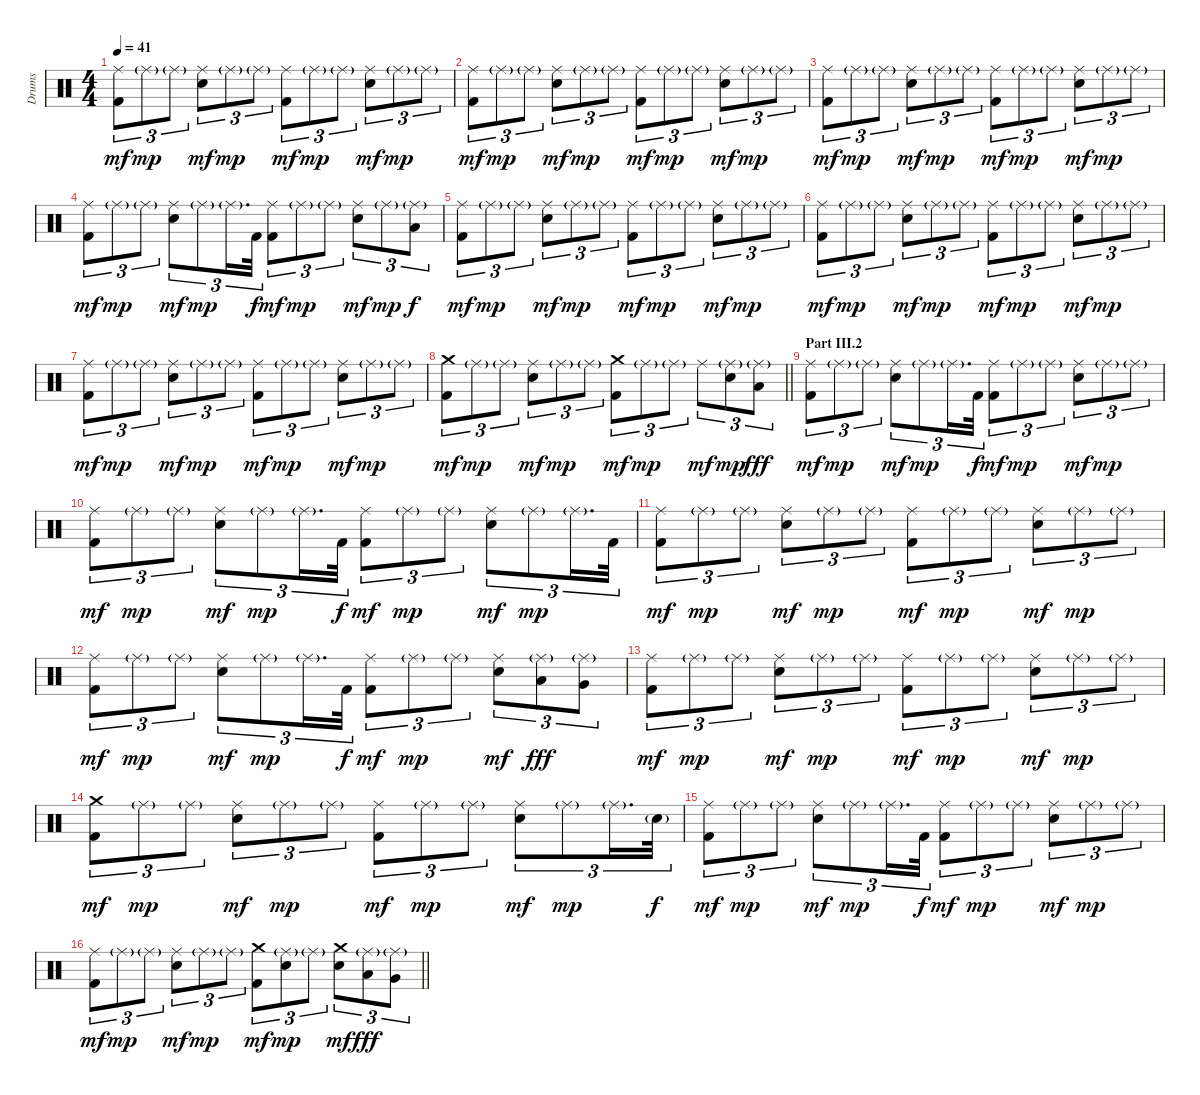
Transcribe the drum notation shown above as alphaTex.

\track ("Drums" "Drums") {instrument percussion}
\staff {score}
\articulation defaults
\ts (4 4)
\tempo 41
\clef neutral
\ks c
("Kick (hit) 2" "Ride (middle)").8{tu (3 2) dy mf} "Ride (middle)"{g}.8{tu (3 2) dy mp} "Ride (middle)"{g}.8{tu (3 2)} ("Electric Snare (hit)" "Ride (middle)").8{tu (3 2) dy mf} "Ride (middle)"{g}.8{tu (3 2) dy mp} "Ride (middle)"{g}.8{tu (3 2)} ("Kick (hit) 2" "Ride (middle)").8{tu (3 2) dy mf} "Ride (middle)"{g}.8{tu (3 2) dy mp} "Ride (middle)"{g}.8{tu (3 2)} ("Electric Snare (hit)" "Ride (middle)").8{tu (3 2) dy mf} "Ride (middle)"{g}.8{tu (3 2) dy mp} "Ride (middle)"{g}.8{tu (3 2)} |
("Kick (hit) 2" "Ride (middle)").8{tu (3 2) dy mf} "Ride (middle)"{g}.8{tu (3 2) dy mp} "Ride (middle)"{g}.8{tu (3 2)} ("Electric Snare (hit)" "Ride (middle)").8{tu (3 2) dy mf} "Ride (middle)"{g}.8{tu (3 2) dy mp} "Ride (middle)"{g}.8{tu (3 2)} ("Kick (hit) 2" "Ride (middle)").8{tu (3 2) dy mf} "Ride (middle)"{g}.8{tu (3 2) dy mp} "Ride (middle)"{g}.8{tu (3 2)} ("Electric Snare (hit)" "Ride (middle)").8{tu (3 2) dy mf} "Ride (middle)"{g}.8{tu (3 2) dy mp} "Ride (middle)"{g}.8{tu (3 2)} |
("Kick (hit) 2" "Ride (middle)").8{tu (3 2) dy mf} "Ride (middle)"{g}.8{tu (3 2) dy mp} "Ride (middle)"{g}.8{tu (3 2)} ("Electric Snare (hit)" "Ride (middle)").8{tu (3 2) dy mf} "Ride (middle)"{g}.8{tu (3 2) dy mp} "Ride (middle)"{g}.8{tu (3 2)} ("Kick (hit) 2" "Ride (middle)").8{tu (3 2) dy mf} "Ride (middle)"{g}.8{tu (3 2) dy mp} "Ride (middle)"{g}.8{tu (3 2)} ("Electric Snare (hit)" "Ride (middle)").8{tu (3 2) dy mf} "Ride (middle)"{g}.8{tu (3 2) dy mp} "Ride (middle)"{g}.8{tu (3 2)} |
("Kick (hit) 2" "Ride (middle)").8{tu (3 2) dy mf} "Ride (middle)"{g}.8{tu (3 2) dy mp} "Ride (middle)"{g}.8{tu (3 2)} ("Electric Snare (hit)" "Ride (middle)").8{tu (3 2) dy mf} "Ride (middle)"{g}.8{tu (3 2) dy mp} "Ride (middle)"{g}.16{d tu (3 2)} "Kick (hit) 2".32{tu (3 2) dy f} ("Kick (hit) 2" "Ride (middle)").8{tu (3 2) dy mf} "Ride (middle)"{g}.8{tu (3 2) dy mp} "Ride (middle)"{g}.8{tu (3 2)} ("Electric Snare (hit)" "Ride (middle)").8{tu (3 2) dy mf} "Ride (middle)"{g}.8{tu (3 2) dy mp} ("Low Floor Tom (hit)" "Ride (middle)"{g}).8{tu (3 2) dy f} |
("Kick (hit) 2" "Ride (middle)").8{tu (3 2) dy mf} "Ride (middle)"{g}.8{tu (3 2) dy mp} "Ride (middle)"{g}.8{tu (3 2)} ("Electric Snare (hit)" "Ride (middle)").8{tu (3 2) dy mf} "Ride (middle)"{g}.8{tu (3 2) dy mp} "Ride (middle)"{g}.8{tu (3 2)} ("Kick (hit) 2" "Ride (middle)").8{tu (3 2) dy mf} "Ride (middle)"{g}.8{tu (3 2) dy mp} "Ride (middle)"{g}.8{tu (3 2)} ("Electric Snare (hit)" "Ride (middle)").8{tu (3 2) dy mf} "Ride (middle)"{g}.8{tu (3 2) dy mp} "Ride (middle)"{g}.8{tu (3 2)} |
("Kick (hit) 2" "Ride (middle)").8{tu (3 2) dy mf} "Ride (middle)"{g}.8{tu (3 2) dy mp} "Ride (middle)"{g}.8{tu (3 2)} ("Electric Snare (hit)" "Ride (middle)").8{tu (3 2) dy mf} "Ride (middle)"{g}.8{tu (3 2) dy mp} "Ride (middle)"{g}.8{tu (3 2)} ("Kick (hit) 2" "Ride (middle)").8{tu (3 2) dy mf} "Ride (middle)"{g}.8{tu (3 2) dy mp} "Ride (middle)"{g}.8{tu (3 2)} ("Electric Snare (hit)" "Ride (middle)").8{tu (3 2) dy mf} "Ride (middle)"{g}.8{tu (3 2) dy mp} "Ride (middle)"{g}.8{tu (3 2)} |
("Kick (hit) 2" "Ride (middle)").8{tu (3 2) dy mf} "Ride (middle)"{g}.8{tu (3 2) dy mp} "Ride (middle)"{g}.8{tu (3 2)} ("Electric Snare (hit)" "Ride (middle)").8{tu (3 2) dy mf} "Ride (middle)"{g}.8{tu (3 2) dy mp} "Ride (middle)"{g}.8{tu (3 2)} ("Kick (hit) 2" "Ride (middle)").8{tu (3 2) dy mf} "Ride (middle)"{g}.8{tu (3 2) dy mp} "Ride (middle)"{g}.8{tu (3 2)} ("Electric Snare (hit)" "Ride (middle)").8{tu (3 2) dy mf} "Ride (middle)"{g}.8{tu (3 2) dy mp} "Ride (middle)"{g}.8{tu (3 2)} |
\barLineRight lightlight
("Kick (hit) 2" "Crash medium (hit)").8{tu (3 2) dy mf} "Ride (middle)"{g}.8{tu (3 2) dy mp} "Ride (middle)"{g}.8{tu (3 2)} ("Electric Snare (hit)" "Ride (middle)").8{tu (3 2) dy mf} "Ride (middle)"{g}.8{tu (3 2) dy mp} "Ride (middle)"{g}.8{tu (3 2)} ("Kick (hit) 2" "Crash medium (hit)").8{tu (3 2) dy mf} "Ride (middle)"{g}.8{tu (3 2) dy mp} "Ride (middle)"{g}.8{tu (3 2)} "Ride (middle)".8{tu (3 2) dy mf} ("Electric Snare (hit)" "Ride (middle)"{g}).8{tu (3 2) dy mp} ("Ride (middle)"{g} "Low Floor Tom (hit)").8{tu (3 2) dy fff} |
\section ("" "Part III.2")
("Kick (hit) 2" "Ride (middle)").8{tu (3 2) dy mf} "Ride (middle)"{g}.8{tu (3 2) dy mp} "Ride (middle)"{g}.8{tu (3 2)} ("Electric Snare (hit)" "Ride (middle)").8{tu (3 2) dy mf} "Ride (middle)"{g}.8{tu (3 2) dy mp} "Ride (middle)"{g}.16{d tu (3 2)} "Kick (hit) 2".32{tu (3 2) dy f} ("Kick (hit) 2" "Ride (middle)").8{tu (3 2) dy mf} "Ride (middle)"{g}.8{tu (3 2) dy mp} "Ride (middle)"{g}.8{tu (3 2)} ("Electric Snare (hit)" "Ride (middle)").8{tu (3 2) dy mf} "Ride (middle)"{g}.8{tu (3 2) dy mp} "Ride (middle)"{g}.8{tu (3 2)} |
("Kick (hit) 2" "Ride (middle)").8{tu (3 2) dy mf} "Ride (middle)"{g}.8{tu (3 2) dy mp} "Ride (middle)"{g}.8{tu (3 2)} ("Electric Snare (hit)" "Ride (middle)").8{tu (3 2) dy mf} "Ride (middle)"{g}.8{tu (3 2) dy mp} "Ride (middle)"{g}.16{d tu (3 2)} "Kick (hit) 2".32{tu (3 2) dy f} ("Kick (hit) 2" "Ride (middle)").8{tu (3 2) dy mf} "Ride (middle)"{g}.8{tu (3 2) dy mp} "Ride (middle)"{g}.8{tu (3 2)} ("Electric Snare (hit)" "Ride (middle)").8{tu (3 2) dy mf} "Ride (middle)"{g}.8{tu (3 2) dy mp} "Ride (middle)"{g}.16{d tu (3 2)} "Kick (hit) 2".32{tu (3 2)} |
("Kick (hit) 2" "Ride (middle)").8{tu (3 2) dy mf} "Ride (middle)"{g}.8{tu (3 2) dy mp} "Ride (middle)"{g}.8{tu (3 2)} ("Electric Snare (hit)" "Ride (middle)").8{tu (3 2) dy mf} "Ride (middle)"{g}.8{tu (3 2) dy mp} "Ride (middle)"{g}.8{tu (3 2)} ("Kick (hit) 2" "Ride (middle)").8{tu (3 2) dy mf} "Ride (middle)"{g}.8{tu (3 2) dy mp} "Ride (middle)"{g}.8{tu (3 2)} ("Electric Snare (hit)" "Ride (middle)").8{tu (3 2) dy mf} "Ride (middle)"{g}.8{tu (3 2) dy mp} "Ride (middle)"{g}.8{tu (3 2)} |
("Kick (hit) 2" "Ride (middle)").8{tu (3 2) dy mf} "Ride (middle)"{g}.8{tu (3 2) dy mp} "Ride (middle)"{g}.8{tu (3 2)} ("Electric Snare (hit)" "Ride (middle)").8{tu (3 2) dy mf} "Ride (middle)"{g}.8{tu (3 2) dy mp} "Ride (middle)"{g}.16{d tu (3 2)} "Kick (hit) 2".32{tu (3 2) dy f} ("Kick (hit) 2" "Ride (middle)").8{tu (3 2) dy mf} "Ride (middle)"{g}.8{tu (3 2) dy mp} "Ride (middle)"{g}.8{tu (3 2)} ("Electric Snare (hit)" "Ride (middle)").8{tu (3 2) dy mf} ("Ride (middle)"{g} "Low Floor Tom (hit)").8{tu (3 2) dy fff} ("Ride (middle)"{g} "Very Low Tom (hit)").8{tu (3 2)} |
("Kick (hit) 2" "Ride (middle)").8{tu (3 2) dy mf} "Ride (middle)"{g}.8{tu (3 2) dy mp} "Ride (middle)"{g}.8{tu (3 2)} ("Electric Snare (hit)" "Ride (middle)").8{tu (3 2) dy mf} "Ride (middle)"{g}.8{tu (3 2) dy mp} "Ride (middle)"{g}.8{tu (3 2)} ("Kick (hit) 2" "Ride (middle)").8{tu (3 2) dy mf} "Ride (middle)"{g}.8{tu (3 2) dy mp} "Ride (middle)"{g}.8{tu (3 2)} ("Electric Snare (hit)" "Ride (middle)").8{tu (3 2) dy mf} "Ride (middle)"{g}.8{tu (3 2) dy mp} "Ride (middle)"{g}.8{tu (3 2)} |
("Kick (hit) 2" "Crash medium (hit)").8{tu (3 2) dy mf} "Ride (middle)"{g}.8{tu (3 2) dy mp} "Ride (middle)"{g}.8{tu (3 2)} ("Electric Snare (hit)" "Ride (middle)").8{tu (3 2) dy mf} "Ride (middle)"{g}.8{tu (3 2) dy mp} "Ride (middle)"{g}.8{tu (3 2)} ("Kick (hit) 2" "Ride (middle)").8{tu (3 2) dy mf} "Ride (middle)"{g}.8{tu (3 2) dy mp} "Ride (middle)"{g}.8{tu (3 2)} ("Electric Snare (hit)" "Ride (middle)").8{tu (3 2) dy mf} "Ride (middle)"{g}.8{tu (3 2) dy mp} "Ride (middle)"{g}.16{d tu (3 2)} "Electric Snare (hit)"{g}.32{tu (3 2) dy f} |
("Kick (hit) 2" "Ride (middle)").8{tu (3 2) dy mf} "Ride (middle)"{g}.8{tu (3 2) dy mp} "Ride (middle)"{g}.8{tu (3 2)} ("Electric Snare (hit)" "Ride (middle)").8{tu (3 2) dy mf} "Ride (middle)"{g}.8{tu (3 2) dy mp} "Ride (middle)"{g}.16{d tu (3 2)} "Kick (hit) 2".32{tu (3 2) dy f} ("Kick (hit) 2" "Ride (middle)").8{tu (3 2) dy mf} "Ride (middle)"{g}.8{tu (3 2) dy mp} "Ride (middle)"{g}.8{tu (3 2)} ("Electric Snare (hit)" "Ride (middle)").8{tu (3 2) dy mf} "Ride (middle)"{g}.8{tu (3 2) dy mp} "Ride (middle)"{g}.8{tu (3 2)} |
\barLineRight lightlight
("Kick (hit) 2" "Ride (middle)").8{tu (3 2) dy mf} "Ride (middle)"{g}.8{tu (3 2) dy mp} "Ride (middle)"{g}.8{tu (3 2)} ("Electric Snare (hit)" "Ride (middle)").8{tu (3 2) dy mf} "Ride (middle)"{g}.8{tu (3 2) dy mp} "Ride (middle)"{g}.8{tu (3 2)} ("Kick (hit) 2" "Crash medium (hit)").8{tu (3 2) dy mf} ("Electric Snare (hit)" "Ride (middle)"{g}).8{tu (3 2) dy mp} "Ride (middle)"{g}.8{tu (3 2)} ("Electric Snare (hit)" "Crash medium (hit)").8{tu (3 2) dy mf} ("Ride (middle)"{g} "Low Floor Tom (hit)").8{tu (3 2) dy fff} ("Ride (middle)"{g} "Very Low Tom (hit)").8{tu (3 2)}
